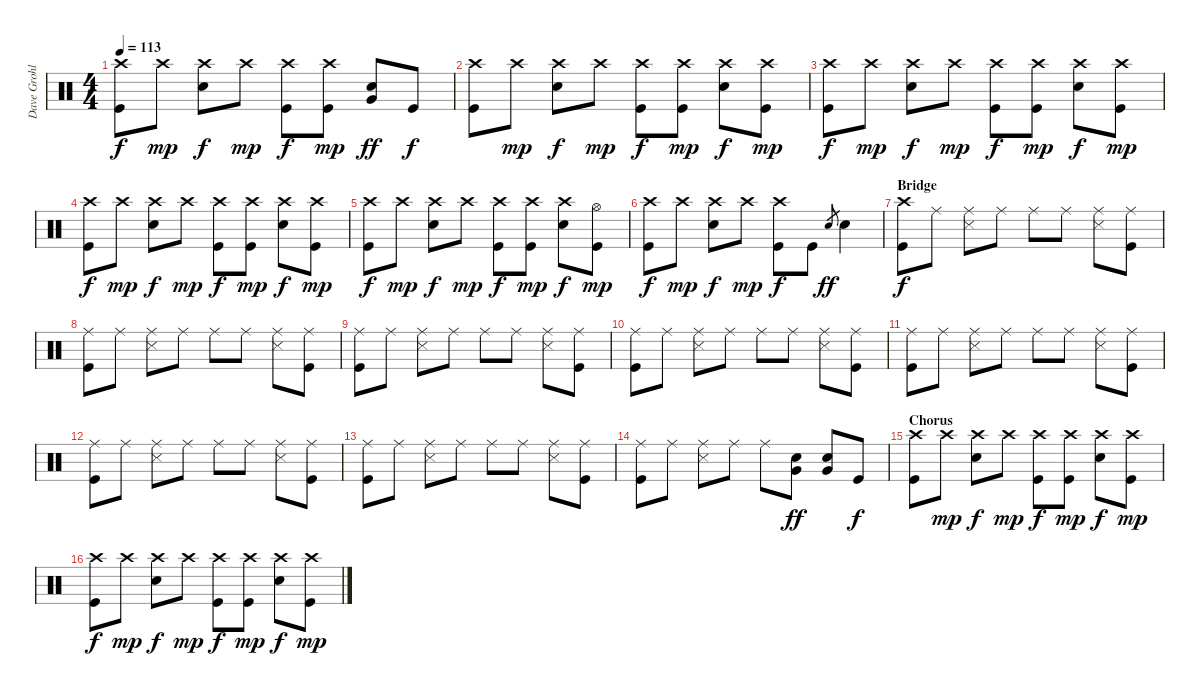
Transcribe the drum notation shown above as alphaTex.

\track ("Dave Grohl" "Dave Grohl") {instrument percussion}
\staff {score}
\articulation defaults
\ts (4 4)
\tempo 113
\clef neutral
\ks c
("Crash high (hit)" "Kick (hit)").8{dy f} "Crash high (hit)".8{dy mp} ("Crash high (hit)" "Electric Snare (hit)").8{dy f} "Crash high (hit)".8{dy mp} ("Crash high (hit)" "Kick (hit)").8{dy f} ("Crash high (hit)" "Kick (hit)").8{dy mp} ("Very Low Tom (hit)" "Electric Snare (hit)").8{dy ff} "Kick (hit)".8{dy f} |
("Crash high (hit)" "Kick (hit)").8 "Crash high (hit)".8{dy mp} ("Crash high (hit)" "Electric Snare (hit)").8{dy f} "Crash high (hit)".8{dy mp} ("Crash high (hit)" "Kick (hit)").8{dy f} ("Crash high (hit)" "Kick (hit)").8{dy mp} ("Crash high (hit)" "Electric Snare (hit)").8{dy f} ("Crash high (hit)" "Kick (hit)").8{dy mp} |
("Crash high (hit)" "Kick (hit)").8{dy f} "Crash high (hit)".8{dy mp} ("Crash high (hit)" "Electric Snare (hit)").8{dy f} "Crash high (hit)".8{dy mp} ("Crash high (hit)" "Kick (hit)").8{dy f} ("Crash high (hit)" "Kick (hit)").8{dy mp} ("Crash high (hit)" "Electric Snare (hit)").8{dy f} ("Crash high (hit)" "Kick (hit)").8{dy mp} |
("Crash high (hit)" "Kick (hit)").8{dy f} "Crash high (hit)".8{dy mp} ("Crash high (hit)" "Electric Snare (hit)").8{dy f} "Crash high (hit)".8{dy mp} ("Crash high (hit)" "Kick (hit)").8{dy f} ("Crash high (hit)" "Kick (hit)").8{dy mp} ("Crash high (hit)" "Electric Snare (hit)").8{dy f} ("Crash high (hit)" "Kick (hit)").8{dy mp} |
("Crash high (hit)" "Kick (hit)").8{dy f} "Crash high (hit)".8{dy mp} ("Crash high (hit)" "Electric Snare (hit)").8{dy f} "Crash high (hit)".8{dy mp} ("Crash high (hit)" "Kick (hit)").8{dy f} ("Crash high (hit)" "Kick (hit)").8{dy mp} ("Crash high (hit)" "Electric Snare (hit)").8{dy f} ("Hi-Hat (open)" "Kick (hit)").8{dy mp} |
("Crash high (hit)" "Kick (hit)").8{dy f} "Crash high (hit)".8{dy mp} ("Crash high (hit)" "Electric Snare (hit)").8{dy f} "Crash high (hit)".8{dy mp} ("Crash high (hit)" "Kick (hit)").8{dy f} "Kick (hit)".8 "Electric Snare (hit)".8{gr dy ff} "Electric Snare (hit)".4 |
\section ("" "Bridge")
("Crash high (hit)" "Kick (hit)").8{dy f} "Ride (middle)".8 ("Ride (middle)" "Snare (side stick) 3").8 "Ride (middle)".8 "Ride (middle)".8 "Ride (middle)".8 ("Ride (middle)" "Snare (side stick) 3").8 ("Ride (middle)" "Kick (hit)").8 |
("Ride (middle)" "Kick (hit)").8 "Ride (middle)".8 ("Ride (middle)" "Snare (side stick) 3").8 "Ride (middle)".8 "Ride (middle)".8 "Ride (middle)".8 ("Ride (middle)" "Snare (side stick) 3").8 ("Ride (middle)" "Kick (hit)").8 |
("Ride (middle)" "Kick (hit)").8 "Ride (middle)".8 ("Ride (middle)" "Snare (side stick) 3").8 "Ride (middle)".8 "Ride (middle)".8 "Ride (middle)".8 ("Ride (middle)" "Snare (side stick) 3").8 ("Ride (middle)" "Kick (hit)").8 |
("Ride (middle)" "Kick (hit)").8 "Ride (middle)".8 ("Ride (middle)" "Snare (side stick) 3").8 "Ride (middle)".8 "Ride (middle)".8 "Ride (middle)".8 ("Ride (middle)" "Snare (side stick) 3").8 ("Ride (middle)" "Kick (hit)").8 |
("Ride (middle)" "Kick (hit)").8 "Ride (middle)".8 ("Ride (middle)" "Snare (side stick) 3").8 "Ride (middle)".8 "Ride (middle)".8 "Ride (middle)".8 ("Ride (middle)" "Snare (side stick) 3").8 ("Ride (middle)" "Kick (hit)").8 |
("Ride (middle)" "Kick (hit)").8 "Ride (middle)".8 ("Ride (middle)" "Snare (side stick) 3").8 "Ride (middle)".8 "Ride (middle)".8 "Ride (middle)".8 ("Ride (middle)" "Snare (side stick) 3").8 ("Ride (middle)" "Kick (hit)").8 |
("Ride (middle)" "Kick (hit)").8 "Ride (middle)".8 ("Ride (middle)" "Snare (side stick) 3").8 "Ride (middle)".8 "Ride (middle)".8 "Ride (middle)".8 ("Ride (middle)" "Snare (side stick) 3").8 ("Ride (middle)" "Kick (hit)").8 |
("Ride (middle)" "Kick (hit)").8 "Ride (middle)".8 ("Ride (middle)" "Snare (side stick) 3").8 "Ride (middle)".8 "Ride (middle)".8 ("Very Low Tom (hit)" "Electric Snare (hit)").8{dy ff} ("Very Low Tom (hit)" "Electric Snare (hit)").8 "Kick (hit)".8{dy f} |
\section ("" "Chorus")
("Crash high (hit)" "Kick (hit)").8 "Crash high (hit)".8{dy mp} ("Crash high (hit)" "Electric Snare (hit)").8{dy f} "Crash high (hit)".8{dy mp} ("Crash high (hit)" "Kick (hit)").8{dy f} ("Crash high (hit)" "Kick (hit)").8{dy mp} ("Crash high (hit)" "Electric Snare (hit)").8{dy f} ("Crash high (hit)" "Kick (hit)").8{dy mp} |
("Crash high (hit)" "Kick (hit)").8{dy f} "Crash high (hit)".8{dy mp} ("Crash high (hit)" "Electric Snare (hit)").8{dy f} "Crash high (hit)".8{dy mp} ("Crash high (hit)" "Kick (hit)").8{dy f} ("Crash high (hit)" "Kick (hit)").8{dy mp} ("Crash high (hit)" "Electric Snare (hit)").8{dy f} ("Crash high (hit)" "Kick (hit)").8{dy mp}
